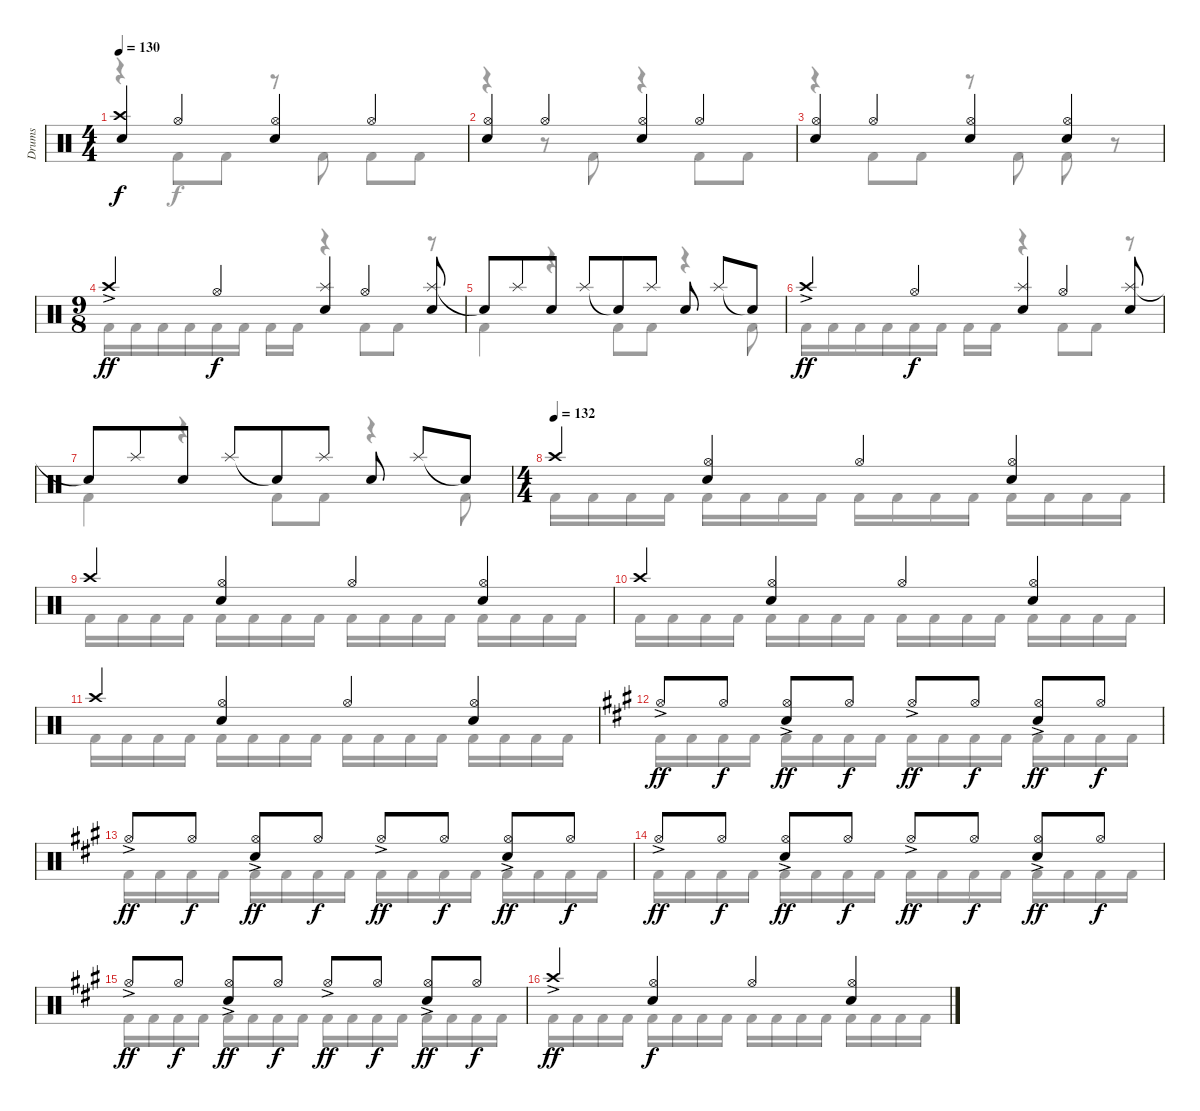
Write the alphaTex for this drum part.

\track ("Drums" "Drums") {instrument percussion}
\staff {score}
\articulation defaults
\voice
\ts (4 4)
\tempo 130
\clef neutral
\ks c
("Crash high (hit)" "Electric Snare (hit)").4{dy f} "Hi-Hat (open)".4 ("Hi-Hat (open)" "Electric Snare (hit)").4 "Hi-Hat (open)".4 |
("Hi-Hat (open)" "Electric Snare (hit)").4 "Hi-Hat (open)".4 ("Hi-Hat (open)" "Electric Snare (hit)").4 "Hi-Hat (open)".4 |
("Hi-Hat (open)" "Electric Snare (hit)").4 "Hi-Hat (open)".4 ("Hi-Hat (open)" "Electric Snare (hit)").4 ("Hi-Hat (open)" "Electric Snare (hit)").4 |
\ts (9 8)
"Crash high (hit)"{ac}.4{dy ff} "Hi-Hat (open)".4{dy f} ("Splash (hit)" "Electric Snare (hit)").4 "Hi-Hat (open)".4 ("Splash (hit)" "Electric Snare (hit)").8 |
"Snare (hit)"{t}.8 "Splash (hit)".8{beam merge} "Electric Snare (hit)".8{beam split} "Splash (hit)".8 "Snare (hit)"{t}.8{beam merge} "Splash (hit)".8 "Electric Snare (hit)".8{beam split} "Splash (hit)".8 "Snare (hit)"{t}.8 |
"Crash high (hit)"{ac}.4{dy ff} "Hi-Hat (open)".4{dy f} ("Splash (hit)" "Electric Snare (hit)").4 "Hi-Hat (open)".4 ("Splash (hit)" "Electric Snare (hit)").8 |
"Snare (hit)"{t}.8 "Splash (hit)".8{beam merge} "Electric Snare (hit)".8{beam split} "Splash (hit)".8 "Snare (hit)"{t}.8{beam merge} "Splash (hit)".8 "Electric Snare (hit)".8{beam split} "Splash (hit)".8 "Snare (hit)"{t}.8 |
\ts (4 4)
\tempo (132)
"Crash high (hit)".4 ("Hi-Hat (open)" "Electric Snare (hit)").4 "Hi-Hat (open)".4 ("Hi-Hat (open)" "Electric Snare (hit)").4 |
"Crash high (hit)".4 ("Hi-Hat (open)" "Electric Snare (hit)").4 "Hi-Hat (open)".4 ("Hi-Hat (open)" "Electric Snare (hit)").4 |
"Crash high (hit)".4 ("Hi-Hat (open)" "Electric Snare (hit)").4 "Hi-Hat (open)".4 ("Hi-Hat (open)" "Electric Snare (hit)").4 |
"Crash high (hit)".4 ("Hi-Hat (open)" "Electric Snare (hit)").4 "Hi-Hat (open)".4 ("Hi-Hat (open)" "Electric Snare (hit)").4 |
\ks a "Hi-Hat (open)"{ac}.8{dy ff} "Hi-Hat (open)".8{dy f}
("Hi-Hat (open)"{ac} "Electric Snare (hit)").8{dy ff} "Hi-Hat (open)".8{dy f} "Hi-Hat (open)"{ac}.8{dy ff} "Hi-Hat (open)".8{dy f} ("Hi-Hat (open)"{ac} "Electric Snare (hit)").8{dy ff} "Hi-Hat (open)".8{dy f} |
"Hi-Hat (open)"{ac}.8{dy ff} "Hi-Hat (open)".8{dy f} ("Hi-Hat (open)"{ac} "Electric Snare (hit)").8{dy ff} "Hi-Hat (open)".8{dy f} "Hi-Hat (open)"{ac}.8{dy ff} "Hi-Hat (open)".8{dy f} ("Hi-Hat (open)"{ac} "Electric Snare (hit)").8{dy ff} "Hi-Hat (open)".8{dy f} |
"Hi-Hat (open)"{ac}.8{dy ff} "Hi-Hat (open)".8{dy f} ("Hi-Hat (open)"{ac} "Electric Snare (hit)").8{dy ff} "Hi-Hat (open)".8{dy f} "Hi-Hat (open)"{ac}.8{dy ff} "Hi-Hat (open)".8{dy f} ("Hi-Hat (open)"{ac} "Electric Snare (hit)").8{dy ff} "Hi-Hat (open)".8{dy f} |
"Hi-Hat (open)"{ac}.8{dy ff} "Hi-Hat (open)".8{dy f} ("Hi-Hat (open)"{ac} "Electric Snare (hit)").8{dy ff} "Hi-Hat (open)".8{dy f} "Hi-Hat (open)"{ac}.8{dy ff} "Hi-Hat (open)".8{dy f} ("Hi-Hat (open)"{ac} "Electric Snare (hit)").8{dy ff} "Hi-Hat (open)".8{dy f} |
"Crash high (hit)"{ac}.4{dy ff} ("Hi-Hat (open)" "Electric Snare (hit)").4{dy f} "Hi-Hat (open)".4 ("Hi-Hat (open)" "Electric Snare (hit)").4
\voice
\clef neutral
\ottava regular
\simile none
\ks c
r.4{dy f} "Kick (hit) 2".8 "Kick (hit) 2".8 r.8 "Kick (hit) 2".8 "Kick (hit) 2".8 "Kick (hit) 2".8 |
r.4 r.8 "Kick (hit) 2".8 r.4 "Kick (hit) 2".8 "Kick (hit) 2".8 |
r.4 "Kick (hit) 2".8 "Kick (hit) 2".8 r.8 "Kick (hit) 2".8 "Kick (hit) 2".8 r.8 |
"Kick (hit) 2".16 "Kick (hit) 2".16 "Kick (hit) 2".16 "Kick (hit) 2".16 "Kick (hit) 2".16 "Kick (hit) 2".16 "Kick (hit) 2".16 "Kick (hit) 2".16 r.4 "Kick (hit) 2".8 "Kick (hit) 2".8 r.8 |
"Kick (hit) 2".4 r.4 "Kick (hit) 2".8 "Kick (hit) 2".8 r.4 "Kick (hit) 2".8 |
"Kick (hit) 2".16 "Kick (hit) 2".16 "Kick (hit) 2".16 "Kick (hit) 2".16 "Kick (hit) 2".16 "Kick (hit) 2".16 "Kick (hit) 2".16 "Kick (hit) 2".16 r.4 "Kick (hit) 2".8 "Kick (hit) 2".8 r.8 |
"Kick (hit) 2".4 r.4 "Kick (hit) 2".8 "Kick (hit) 2".8 r.4 "Kick (hit) 2".8 |
"Kick (hit) 2".16 "Kick (hit) 2".16 "Kick (hit) 2".16 "Kick (hit) 2".16 "Kick (hit) 2".16 "Kick (hit) 2".16 "Kick (hit) 2".16 "Kick (hit) 2".16 "Kick (hit) 2".16 "Kick (hit) 2".16 "Kick (hit) 2".16 "Kick (hit) 2".16 "Kick (hit) 2".16 "Kick (hit) 2".16 "Kick (hit) 2".16 "Kick (hit) 2".16 |
"Kick (hit) 2".16 "Kick (hit) 2".16 "Kick (hit) 2".16 "Kick (hit) 2".16 "Kick (hit) 2".16 "Kick (hit) 2".16 "Kick (hit) 2".16 "Kick (hit) 2".16 "Kick (hit) 2".16 "Kick (hit) 2".16 "Kick (hit) 2".16 "Kick (hit) 2".16 "Kick (hit) 2".16 "Kick (hit) 2".16 "Kick (hit) 2".16 "Kick (hit) 2".16 |
"Kick (hit) 2".16 "Kick (hit) 2".16 "Kick (hit) 2".16 "Kick (hit) 2".16 "Kick (hit) 2".16 "Kick (hit) 2".16 "Kick (hit) 2".16 "Kick (hit) 2".16 "Kick (hit) 2".16 "Kick (hit) 2".16 "Kick (hit) 2".16 "Kick (hit) 2".16 "Kick (hit) 2".16 "Kick (hit) 2".16 "Kick (hit) 2".16 "Kick (hit) 2".16 |
"Kick (hit) 2".16 "Kick (hit) 2".16 "Kick (hit) 2".16 "Kick (hit) 2".16 "Kick (hit) 2".16 "Kick (hit) 2".16 "Kick (hit) 2".16 "Kick (hit) 2".16 "Kick (hit) 2".16 "Kick (hit) 2".16 "Kick (hit) 2".16 "Kick (hit) 2".16 "Kick (hit) 2".16 "Kick (hit) 2".16 "Kick (hit) 2".16 "Kick (hit) 2".16 |
\ks a "Kick (hit) 2".16 "Kick (hit) 2".16 "Kick (hit) 2".16 "Kick (hit) 2".16 "Kick (hit) 2".16 "Kick (hit) 2".16 "Kick (hit) 2".16 "Kick (hit) 2".16 "Kick (hit) 2".16 "Kick (hit) 2".16 "Kick (hit) 2".16 "Kick (hit) 2".16 "Kick (hit) 2".16 "Kick (hit) 2".16 "Kick (hit) 2".16 "Kick (hit) 2".16
|
"Kick (hit) 2".16 "Kick (hit) 2".16 "Kick (hit) 2".16 "Kick (hit) 2".16 "Kick (hit) 2".16 "Kick (hit) 2".16 "Kick (hit) 2".16 "Kick (hit) 2".16 "Kick (hit) 2".16 "Kick (hit) 2".16 "Kick (hit) 2".16 "Kick (hit) 2".16 "Kick (hit) 2".16 "Kick (hit) 2".16 "Kick (hit) 2".16 "Kick (hit) 2".16 |
"Kick (hit) 2".16 "Kick (hit) 2".16 "Kick (hit) 2".16 "Kick (hit) 2".16 "Kick (hit) 2".16 "Kick (hit) 2".16 "Kick (hit) 2".16 "Kick (hit) 2".16 "Kick (hit) 2".16 "Kick (hit) 2".16 "Kick (hit) 2".16 "Kick (hit) 2".16 "Kick (hit) 2".16 "Kick (hit) 2".16 "Kick (hit) 2".16 "Kick (hit) 2".16 |
"Kick (hit) 2".16 "Kick (hit) 2".16 "Kick (hit) 2".16 "Kick (hit) 2".16 "Kick (hit) 2".16 "Kick (hit) 2".16 "Kick (hit) 2".16 "Kick (hit) 2".16 "Kick (hit) 2".16 "Kick (hit) 2".16 "Kick (hit) 2".16 "Kick (hit) 2".16 "Kick (hit) 2".16 "Kick (hit) 2".16 "Kick (hit) 2".16 "Kick (hit) 2".16 |
"Kick (hit) 2".16 "Kick (hit) 2".16 "Kick (hit) 2".16 "Kick (hit) 2".16 "Kick (hit) 2".16 "Kick (hit) 2".16 "Kick (hit) 2".16 "Kick (hit) 2".16 "Kick (hit) 2".16 "Kick (hit) 2".16 "Kick (hit) 2".16 "Kick (hit) 2".16 "Kick (hit) 2".16 "Kick (hit) 2".16 "Kick (hit) 2".16 "Kick (hit) 2".16
